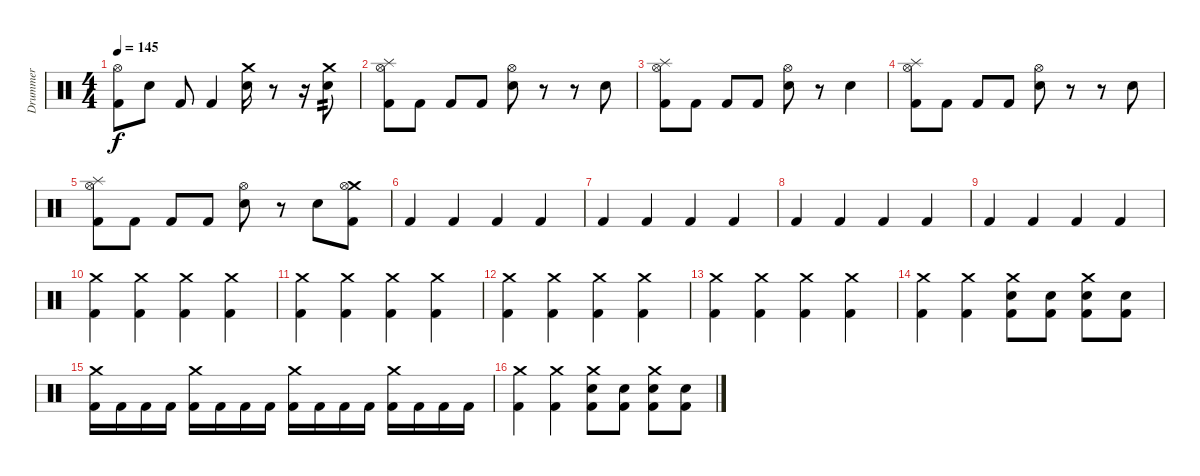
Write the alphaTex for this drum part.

\track ("Drummer" "Drummer") {instrument percussion}
\staff {score}
\articulation defaults
\ts (4 4)
\tempo 145
\clef neutral
\ks c
("Hi-Hat (open)" "Kick (hit) 2").8{dy f} "Electric Snare (hit)".8 "Kick (hit) 2".8 "Kick (hit) 2".4 ("Crash medium (hit)" "Electric Snare (hit)").16 r.8 r.16 ("Crash medium (hit)" "Electric Snare (hit)").8{tp 2} |
("Hi-Hat (open)" "Splash (hit)" "Kick (hit) 2").8 "Kick (hit) 2".8 "Kick (hit) 2".8 "Kick (hit) 2".8 ("Hi-Hat (open)" "Electric Snare (hit)").8 r.8 r.8 "Snare (hit)".8 |
("Hi-Hat (open)" "Splash (hit)" "Kick (hit) 2").8 "Kick (hit) 2".8 "Kick (hit) 2".8 "Kick (hit) 2".8 ("Hi-Hat (open)" "Electric Snare (hit)").8 r.8 "Snare (hit)".4 |
("Hi-Hat (open)" "Splash (hit)" "Kick (hit) 2").8 "Kick (hit) 2".8 "Kick (hit) 2".8 "Kick (hit) 2".8 ("Hi-Hat (open)" "Electric Snare (hit)").8 r.8 r.8 "Snare (hit)".8 |
("Hi-Hat (open)" "Splash (hit)" "Kick (hit) 2").8 "Kick (hit) 2".8 "Kick (hit) 2".8 "Kick (hit) 2".8 ("Hi-Hat (open)" "Electric Snare (hit)").8 r.8 "Snare (hit)".8 ("Crash medium (hit)" "Hi-Hat (open)" "Kick (hit) 2").8 |
"Kick (hit) 2".4 "Kick (hit) 2".4 "Kick (hit) 2".4 "Kick (hit) 2".4 |
"Kick (hit) 2".4 "Kick (hit) 2".4 "Kick (hit) 2".4 "Kick (hit) 2".4 |
"Kick (hit) 2".4 "Kick (hit) 2".4 "Kick (hit) 2".4 "Kick (hit) 2".4 |
"Kick (hit) 2".4 "Kick (hit) 2".4 "Kick (hit) 2".4 "Kick (hit) 2".4 |
("Crash medium (hit)" "Kick (hit) 2").4 ("Crash medium (hit)" "Kick (hit) 2").4 ("Crash medium (hit)" "Kick (hit) 2").4 ("Crash medium (hit)" "Kick (hit) 2").4 |
("Crash medium (hit)" "Kick (hit) 2").4 ("Crash medium (hit)" "Kick (hit) 2").4 ("Crash medium (hit)" "Kick (hit) 2").4 ("Crash medium (hit)" "Kick (hit) 2").4 |
("Crash medium (hit)" "Kick (hit) 2").4 ("Crash medium (hit)" "Kick (hit) 2").4 ("Crash medium (hit)" "Kick (hit) 2").4 ("Crash medium (hit)" "Kick (hit) 2").4 |
("Crash medium (hit)" "Kick (hit) 2").4 ("Crash medium (hit)" "Kick (hit) 2").4 ("Crash medium (hit)" "Kick (hit) 2").4 ("Crash medium (hit)" "Kick (hit) 2").4 |
("Crash medium (hit)" "Kick (hit) 2").4 ("Crash medium (hit)" "Kick (hit) 2").4 ("Crash medium (hit)" "Electric Snare (hit)" "Kick (hit) 2").8 ("Electric Snare (hit)" "Kick (hit) 2").8 ("Crash medium (hit)" "Electric Snare (hit)" "Kick (hit) 2").8 ("Electric Snare (hit)" "Kick (hit) 2").8 |
("Crash medium (hit)" "Kick (hit) 2").16 "Kick (hit) 2".16 "Kick (hit) 2".16 "Kick (hit) 2".16 ("Crash medium (hit)" "Kick (hit) 2").16 "Kick (hit) 2".16 "Kick (hit) 2".16 "Kick (hit) 2".16 ("Crash medium (hit)" "Kick (hit) 2").16 "Kick (hit) 2".16 "Kick (hit) 2".16 "Kick (hit) 2".16 ("Crash medium (hit)" "Kick (hit) 2").16 "Kick (hit) 2".16 "Kick (hit) 2".16 "Kick (hit) 2".16 |
("Crash medium (hit)" "Kick (hit) 2").4 ("Crash medium (hit)" "Kick (hit) 2").4 ("Crash medium (hit)" "Electric Snare (hit)" "Kick (hit) 2").8 ("Electric Snare (hit)" "Kick (hit) 2").8 ("Crash medium (hit)" "Electric Snare (hit)" "Kick (hit) 2").8 ("Electric Snare (hit)" "Kick (hit) 2").8
